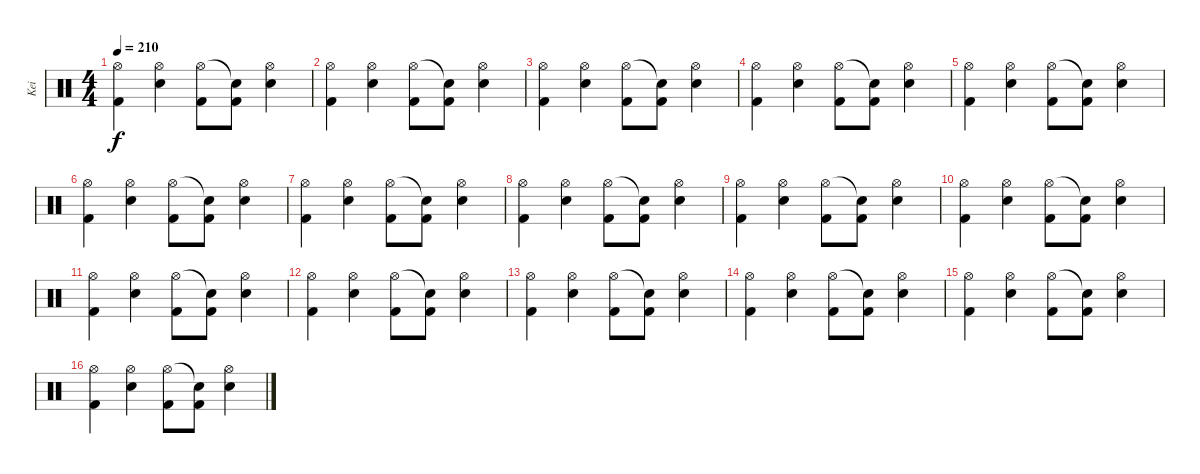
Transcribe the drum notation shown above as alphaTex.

\track ("Kei" "Kei") {instrument percussion}
\staff {score}
\articulation defaults
\ts (4 4)
\tempo 210
\clef neutral
\ks c
("Hi-Hat (open)" "Kick (hit) 2").4{dy f} ("Hi-Hat (open)" "Electric Snare (hit)").4 ("Hi-Hat (open)" "Kick (hit) 2").8 ("Snare (hit)"{t} "Kick (hit) 2").8 ("Hi-Hat (open)" "Electric Snare (hit)").4 |
("Hi-Hat (open)" "Kick (hit) 2").4 ("Hi-Hat (open)" "Electric Snare (hit)").4 ("Hi-Hat (open)" "Kick (hit) 2").8 ("Snare (hit)"{t} "Kick (hit) 2").8 ("Hi-Hat (open)" "Electric Snare (hit)").4 |
("Hi-Hat (open)" "Kick (hit) 2").4 ("Hi-Hat (open)" "Electric Snare (hit)").4 ("Hi-Hat (open)" "Kick (hit) 2").8 ("Snare (hit)"{t} "Kick (hit) 2").8 ("Hi-Hat (open)" "Electric Snare (hit)").4 |
("Hi-Hat (open)" "Kick (hit) 2").4 ("Hi-Hat (open)" "Electric Snare (hit)").4 ("Hi-Hat (open)" "Kick (hit) 2").8 ("Snare (hit)"{t} "Kick (hit) 2").8 ("Hi-Hat (open)" "Electric Snare (hit)").4 |
("Hi-Hat (open)" "Kick (hit) 2").4 ("Hi-Hat (open)" "Electric Snare (hit)").4 ("Hi-Hat (open)" "Kick (hit) 2").8 ("Snare (hit)"{t} "Kick (hit) 2").8 ("Hi-Hat (open)" "Electric Snare (hit)").4 |
("Hi-Hat (open)" "Kick (hit) 2").4 ("Hi-Hat (open)" "Electric Snare (hit)").4 ("Hi-Hat (open)" "Kick (hit) 2").8 ("Snare (hit)"{t} "Kick (hit) 2").8 ("Hi-Hat (open)" "Electric Snare (hit)").4 |
("Hi-Hat (open)" "Kick (hit) 2").4 ("Hi-Hat (open)" "Electric Snare (hit)").4 ("Hi-Hat (open)" "Kick (hit) 2").8 ("Snare (hit)"{t} "Kick (hit) 2").8 ("Hi-Hat (open)" "Electric Snare (hit)").4 |
("Hi-Hat (open)" "Kick (hit) 2").4 ("Hi-Hat (open)" "Electric Snare (hit)").4 ("Hi-Hat (open)" "Kick (hit) 2").8 ("Snare (hit)"{t} "Kick (hit) 2").8 ("Hi-Hat (open)" "Electric Snare (hit)").4 |
("Hi-Hat (open)" "Kick (hit) 2").4 ("Hi-Hat (open)" "Electric Snare (hit)").4 ("Hi-Hat (open)" "Kick (hit) 2").8 ("Snare (hit)"{t} "Kick (hit) 2").8 ("Hi-Hat (open)" "Electric Snare (hit)").4 |
("Hi-Hat (open)" "Kick (hit) 2").4 ("Hi-Hat (open)" "Electric Snare (hit)").4 ("Hi-Hat (open)" "Kick (hit) 2").8 ("Snare (hit)"{t} "Kick (hit) 2").8 ("Hi-Hat (open)" "Electric Snare (hit)").4 |
("Hi-Hat (open)" "Kick (hit) 2").4 ("Hi-Hat (open)" "Electric Snare (hit)").4 ("Hi-Hat (open)" "Kick (hit) 2").8 ("Snare (hit)"{t} "Kick (hit) 2").8 ("Hi-Hat (open)" "Electric Snare (hit)").4 |
("Hi-Hat (open)" "Kick (hit) 2").4 ("Hi-Hat (open)" "Electric Snare (hit)").4 ("Hi-Hat (open)" "Kick (hit) 2").8 ("Snare (hit)"{t} "Kick (hit) 2").8 ("Hi-Hat (open)" "Electric Snare (hit)").4 |
("Hi-Hat (open)" "Kick (hit) 2").4 ("Hi-Hat (open)" "Electric Snare (hit)").4 ("Hi-Hat (open)" "Kick (hit) 2").8 ("Snare (hit)"{t} "Kick (hit) 2").8 ("Hi-Hat (open)" "Electric Snare (hit)").4 |
("Hi-Hat (open)" "Kick (hit) 2").4 ("Hi-Hat (open)" "Electric Snare (hit)").4 ("Hi-Hat (open)" "Kick (hit) 2").8 ("Snare (hit)"{t} "Kick (hit) 2").8 ("Hi-Hat (open)" "Electric Snare (hit)").4 |
("Hi-Hat (open)" "Kick (hit) 2").4 ("Hi-Hat (open)" "Electric Snare (hit)").4 ("Hi-Hat (open)" "Kick (hit) 2").8 ("Snare (hit)"{t} "Kick (hit) 2").8 ("Hi-Hat (open)" "Electric Snare (hit)").4 |
("Hi-Hat (open)" "Kick (hit) 2").4 ("Hi-Hat (open)" "Electric Snare (hit)").4 ("Hi-Hat (open)" "Kick (hit) 2").8 ("Snare (hit)"{t} "Kick (hit) 2").8 ("Hi-Hat (open)" "Electric Snare (hit)").4
